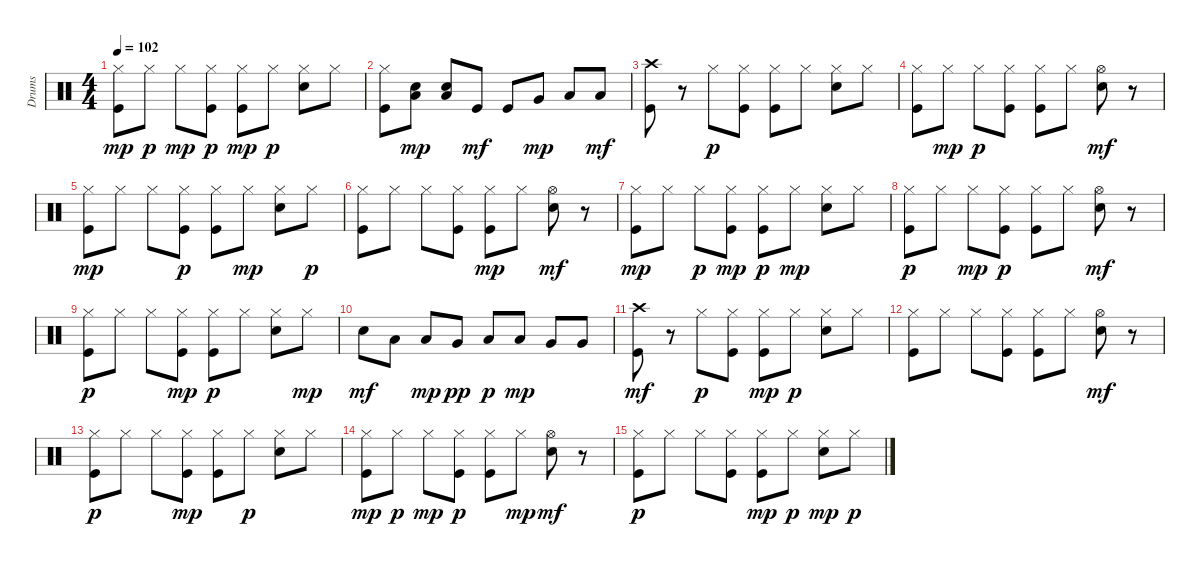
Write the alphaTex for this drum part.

\track ("Drums" "Drums") {instrument percussion}
\staff {score}
\articulation defaults
\ts (4 4)
\tempo 102
\clef neutral
\ks c
("Kick (hit)" "Hi-Hat (closed)").8{dy mp} "Hi-Hat (closed)".8{dy p} "Hi-Hat (closed)".8{dy mp} ("Kick (hit)" "Hi-Hat (closed)").8{dy p} ("Kick (hit)" "Hi-Hat (closed)").8{dy mp} "Hi-Hat (closed)".8{dy p} ("Snare (hit) 2" "Hi-Hat (closed)").8 "Hi-Hat (closed)".8 |
("Kick (hit)" "Hi-Hat (closed)").8 ("Snare (hit) 2" "Low Tom (hit)").8{dy mp} ("Snare (hit) 2" "Low Tom (hit)").8 "Kick (hit)".8{dy mf} "Kick (hit)".8 "Very Low Tom (hit)".8{dy mp} "Low Floor Tom (hit)".8 "Low Floor Tom (hit)".8{dy mf} |
("Crash high (hit)" "Kick (hit)").8 r.8 "Hi-Hat (closed)".8{dy p} ("Kick (hit)" "Hi-Hat (closed)").8 ("Kick (hit)" "Hi-Hat (closed)").8 "Hi-Hat (closed)".8 ("Snare (hit) 2" "Hi-Hat (closed)").8 "Hi-Hat (closed)".8 |
("Kick (hit)" "Hi-Hat (closed)").8 "Hi-Hat (closed)".8{dy mp} "Hi-Hat (closed)".8{dy p} ("Kick (hit)" "Hi-Hat (closed)").8 ("Kick (hit)" "Hi-Hat (closed)").8 "Hi-Hat (closed)".8 ("Hi-Hat (open)" "Snare (hit) 2").8{dy mf} r.8 |
("Kick (hit)" "Hi-Hat (closed)").8{dy mp} "Hi-Hat (closed)".8 "Hi-Hat (closed)".8 ("Kick (hit)" "Hi-Hat (closed)").8{dy p} ("Kick (hit)" "Hi-Hat (closed)").8 "Hi-Hat (closed)".8{dy mp} ("Snare (hit) 2" "Hi-Hat (closed)").8 "Hi-Hat (closed)".8{dy p} |
("Kick (hit)" "Hi-Hat (closed)").8 "Hi-Hat (closed)".8 "Hi-Hat (closed)".8 ("Kick (hit)" "Hi-Hat (closed)").8 ("Kick (hit)" "Hi-Hat (closed)").8{dy mp} "Hi-Hat (closed)".8 ("Hi-Hat (open)" "Snare (hit) 2").8{dy mf} r.8 |
("Kick (hit)" "Hi-Hat (closed)").8{dy mp volume 15} "Hi-Hat (closed)".8{volume 15} "Hi-Hat (closed)".8{dy p volume 15} ("Kick (hit)" "Hi-Hat (closed)").8{dy mp volume 14} ("Kick (hit)" "Hi-Hat (closed)").8{dy p volume 14} "Hi-Hat (closed)".8{dy mp volume 14} ("Snare (hit) 2" "Hi-Hat (closed)").8{volume 14} "Hi-Hat (closed)".8{volume 14} |
("Kick (hit)" "Hi-Hat (closed)").8{dy p volume 13} "Hi-Hat (closed)".8{volume 13} "Hi-Hat (closed)".8{dy mp volume 13} ("Kick (hit)" "Hi-Hat (closed)").8{dy p volume 13} ("Kick (hit)" "Hi-Hat (closed)").8{volume 12} "Hi-Hat (closed)".8{volume 12} ("Hi-Hat (open)" "Snare (hit) 2").8{dy mf volume 12} r.8 |
("Kick (hit)" "Hi-Hat (closed)").8{dy p volume 12} "Hi-Hat (closed)".8{volume 12} "Hi-Hat (closed)".8{volume 11} ("Kick (hit)" "Hi-Hat (closed)").8{dy mp volume 11} ("Kick (hit)" "Hi-Hat (closed)").8{dy p volume 11} "Hi-Hat (closed)".8{volume 11} ("Snare (hit) 2" "Hi-Hat (closed)").8{volume 10} "Hi-Hat (closed)".8{dy mp volume 10} |
"Snare (hit) 2".8{dy mf volume 10} "Low Tom (hit)".8{volume 10} "Low Floor Tom (hit)".8{dy mp volume 10} "Very Low Tom (hit)".8{dy pp volume 9} "Low Tom (hit)".8{dy p volume 9} "Low Tom (hit)".8{dy mp volume 9} "Very Low Tom (hit)".8{volume 9} "Very Low Tom (hit)".8{volume 9} |
("Crash high (hit)" "Kick (hit)").8{dy mf volume 8} r.8 "Hi-Hat (closed)".8{dy p volume 8} ("Kick (hit)" "Hi-Hat (closed)").8{volume 8} ("Kick (hit)" "Hi-Hat (closed)").8{dy mp volume 8} "Hi-Hat (closed)".8{dy p volume 7} ("Snare (hit) 2" "Hi-Hat (closed)").8{volume 7} "Hi-Hat (closed)".8{volume 7} |
("Kick (hit)" "Hi-Hat (closed)").8{volume 7} "Hi-Hat (closed)".8{volume 6} "Hi-Hat (closed)".8{volume 6} ("Kick (hit)" "Hi-Hat (closed)").8{volume 6} ("Kick (hit)" "Hi-Hat (closed)").8{volume 6} "Hi-Hat (closed)".8{volume 6} ("Hi-Hat (open)" "Snare (hit) 2").8{dy mf volume 6} r.8 |
("Kick (hit)" "Hi-Hat (closed)").8{dy p volume 5} "Hi-Hat (closed)".8{volume 5} "Hi-Hat (closed)".8{volume 5} ("Kick (hit)" "Hi-Hat (closed)").8{dy mp volume 4} ("Kick (hit)" "Hi-Hat (closed)").8{volume 4} "Hi-Hat (closed)".8{dy p volume 4} ("Snare (hit) 2" "Hi-Hat (closed)").8{volume 4} "Hi-Hat (closed)".8{volume 4} |
("Kick (hit)" "Hi-Hat (closed)").8{dy mp volume 3} "Hi-Hat (closed)".8{dy p volume 3} "Hi-Hat (closed)".8{dy mp volume 3} ("Kick (hit)" "Hi-Hat (closed)").8{dy p volume 3} ("Kick (hit)" "Hi-Hat (closed)").8{volume 2} "Hi-Hat (closed)".8{dy mp volume 2} ("Hi-Hat (open)" "Snare (hit) 2").8{dy mf volume 2} r.8 |
("Kick (hit)" "Hi-Hat (closed)").8{dy p volume 2} "Hi-Hat (closed)".8{volume 2} "Hi-Hat (closed)".8{volume 1} ("Kick (hit)" "Hi-Hat (closed)").8{volume 1} ("Kick (hit)" "Hi-Hat (closed)").8{dy mp volume 1} "Hi-Hat (closed)".8{dy p volume 1} ("Snare (hit) 2" "Hi-Hat (closed)").8{dy mp volume 0} "Hi-Hat (closed)".8{dy p volume 0}
